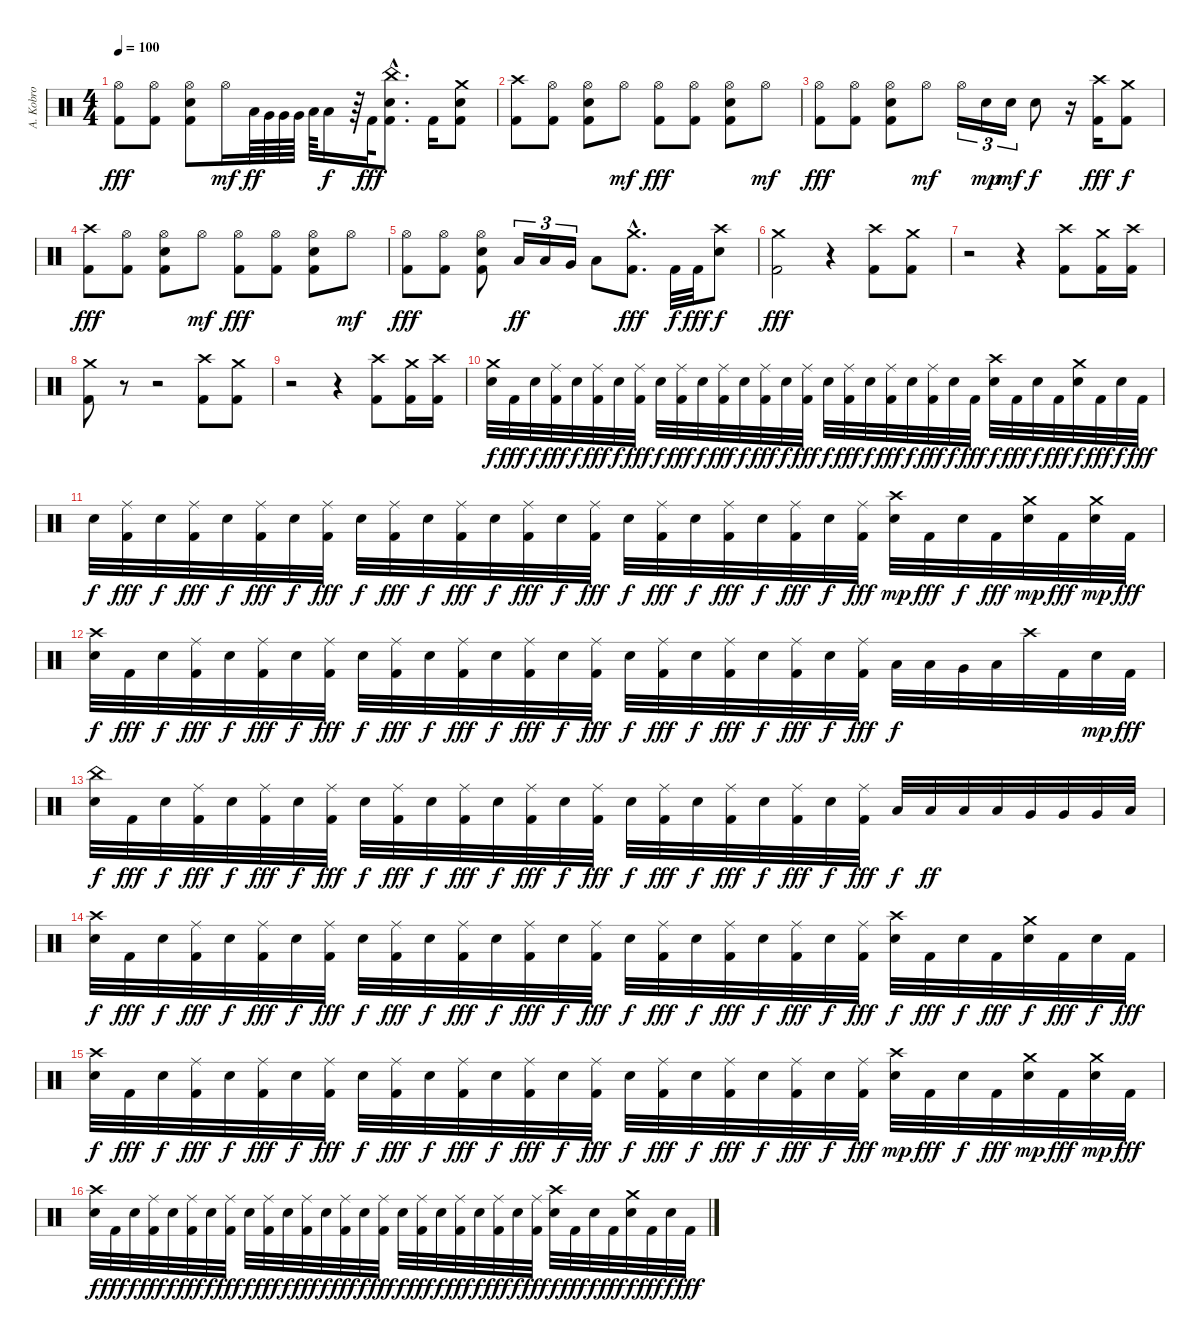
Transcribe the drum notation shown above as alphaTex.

\track ("A. Kobro" "A. Kobro") {instrument percussion}
\staff {score}
\articulation defaults
\ts (4 4)
\tempo 100
\clef neutral
\ks c
("Hi-Hat (open)" "Kick (hit) 2").8{dy fff} ("Hi-Hat (open)" "Kick (hit) 2").8 ("Hi-Hat (open)" "Electric Snare (hit)" "Kick (hit) 2").8 "Hi-Hat (open)".16{dy mf} "Low Tom (hit)".64{dy ff} "Very Low Tom (hit)".64 "Very Low Tom (hit)".64 "Very Low Tom (hit)".64 "Low Floor Tom (hit)".64 "Low Floor Tom (hit)".16{dy f} r.64 "Kick (hit) 2".32{dy fff} ("China (hit)"{hac} "Electric Snare (hit)"{hac} "Kick (hit) 2"{hac}).8{d} "Kick (hit) 2".16 ("Crash medium (hit)" "Electric Snare (hit)" "Kick (hit) 2").8 |
("Crash high (hit)" "Kick (hit) 2").8 ("Hi-Hat (open)" "Kick (hit) 2").8 ("Hi-Hat (open)" "Electric Snare (hit)" "Kick (hit) 2").8 "Hi-Hat (open)".8{dy mf} ("Hi-Hat (open)" "Kick (hit) 2").8{dy fff} ("Hi-Hat (open)" "Kick (hit) 2").8 ("Hi-Hat (open)" "Electric Snare (hit)" "Kick (hit) 2").8 "Hi-Hat (open)".8{dy mf} |
("Hi-Hat (open)" "Kick (hit) 2").8{dy fff} ("Hi-Hat (open)" "Kick (hit) 2").8 ("Hi-Hat (open)" "Electric Snare (hit)" "Kick (hit) 2").8 "Hi-Hat (open)".8{dy mf} "Hi-Hat (open)".16{tu (3 2)} "Electric Snare (hit)".16{tu (3 2) dy mp} "Electric Snare (hit)".16{tu (3 2) dy mf} "Electric Snare (hit)".8{dy f} r.16 ("Crash high (hit)" "Kick (hit) 2").16{dy fff} ("Crash medium (hit)" "Kick (hit) 2").8{dy f} |
("Crash high (hit)" "Kick (hit) 2").8{dy fff} ("Hi-Hat (open)" "Kick (hit) 2").8 ("Hi-Hat (open)" "Electric Snare (hit)" "Kick (hit) 2").8 "Hi-Hat (open)".8{dy mf} ("Hi-Hat (open)" "Kick (hit) 2").8{dy fff} ("Hi-Hat (open)" "Kick (hit) 2").8 ("Hi-Hat (open)" "Electric Snare (hit)" "Kick (hit) 2").8 "Hi-Hat (open)".8{dy mf} |
("Hi-Hat (open)" "Kick (hit) 2").8{dy fff} ("Hi-Hat (open)" "Kick (hit) 2").8 ("Hi-Hat (open)" "Electric Snare (hit)" "Kick (hit) 2").8 "Low Tom (hit)".16{tu (3 2) dy ff} "Low Tom (hit)".16{tu (3 2)} "Very Low Tom (hit)".16{tu (3 2)} "Low Floor Tom (hit)".8 ("Crash medium (hit)"{hac} "Kick (hit) 2"{hac}).8{d dy fff} "Kick (hit) 2".32{dy f} "Kick (hit) 2".32{dy fff} ("Crash high (hit)" "Electric Snare (hit)").8{dy f} |
("Crash medium (hit)" "Kick (hit) 2").2{dy fff} r.4 ("Crash high (hit)" "Kick (hit) 2").8 ("Crash medium (hit)" "Kick (hit) 2").8 |
r.2{volume 0} r.4{volume 14} ("Crash high (hit)" "Kick (hit) 2").8 ("Crash medium (hit)" "Kick (hit) 2").16 ("Crash high (hit)" "Kick (hit) 2").16 |
("Crash medium (hit)" "Kick (hit) 2").8 r.8{volume 0} r.2 ("Crash high (hit)" "Kick (hit) 2").8{volume 14} ("Crash medium (hit)" "Kick (hit) 2").8 |
r.2 r.4 ("Crash high (hit)" "Kick (hit) 2").8 ("Crash medium (hit)" "Kick (hit) 2").16 ("Crash high (hit)" "Kick (hit) 2").16 |
("Crash medium (hit)" "Electric Snare (hit)").32{dy f} "Kick (hit) 2".32{dy fff} "Electric Snare (hit)".32{dy f} ("Ride (middle)" "Kick (hit) 2").32{dy fff} "Electric Snare (hit)".32{dy f} ("Ride (middle)" "Kick (hit) 2").32{dy fff} "Electric Snare (hit)".32{dy f} ("Ride (middle)" "Kick (hit) 2").32{dy fff} "Electric Snare (hit)".32{dy f} ("Ride (middle)" "Kick (hit) 2").32{dy fff} "Electric Snare (hit)".32{dy f} ("Ride (middle)" "Kick (hit) 2").32{dy fff} "Electric Snare (hit)".32{dy f} ("Ride (middle)" "Kick (hit) 2").32{dy fff} "Electric Snare (hit)".32{dy f} ("Ride (middle)" "Kick (hit) 2").32{dy fff} "Electric Snare (hit)".32{dy f} ("Ride (middle)" "Kick (hit) 2").32{dy fff} "Electric Snare (hit)".32{dy f} ("Ride (middle)" "Kick (hit) 2").32{dy fff} "Electric Snare (hit)".32{dy f} ("Ride (middle)" "Kick (hit) 2").32{dy fff} "Electric Snare (hit)".32{dy f} "Kick (hit) 2".32{dy fff} ("Crash high (hit)" "Electric Snare (hit)").32{dy f} "Kick (hit) 2".32{dy fff} "Electric Snare (hit)".32{dy f} "Kick (hit) 2".32{dy fff} ("Crash medium (hit)" "Electric Snare (hit)").32{dy f} "Kick (hit) 2".32{dy fff} "Electric Snare (hit)".32{dy f} "Kick (hit) 2".32{dy fff} |
"Electric Snare (hit)".32{dy f} ("Ride (middle)" "Kick (hit) 2").32{dy fff} "Electric Snare (hit)".32{dy f} ("Ride (middle)" "Kick (hit) 2").32{dy fff} "Electric Snare (hit)".32{dy f} ("Ride (middle)" "Kick (hit) 2").32{dy fff} "Electric Snare (hit)".32{dy f} ("Ride (middle)" "Kick (hit) 2").32{dy fff} "Electric Snare (hit)".32{dy f} ("Ride (middle)" "Kick (hit) 2").32{dy fff} "Electric Snare (hit)".32{dy f} ("Ride (middle)" "Kick (hit) 2").32{dy fff} "Electric Snare (hit)".32{dy f} ("Ride (middle)" "Kick (hit) 2").32{dy fff} "Electric Snare (hit)".32{dy f} ("Ride (middle)" "Kick (hit) 2").32{dy fff} "Electric Snare (hit)".32{dy f} ("Ride (middle)" "Kick (hit) 2").32{dy fff} "Electric Snare (hit)".32{dy f} ("Ride (middle)" "Kick (hit) 2").32{dy fff} "Electric Snare (hit)".32{dy f} ("Ride (middle)" "Kick (hit) 2").32{dy fff} "Electric Snare (hit)".32{dy f} ("Ride (middle)" "Kick (hit) 2").32{dy fff} ("Crash high (hit)" "Electric Snare (hit)").32{dy mp} "Kick (hit) 2".32{dy fff} "Electric Snare (hit)".32{dy f} "Kick (hit) 2".32{dy fff} ("Crash medium (hit)" "Electric Snare (hit)").32{dy mp} "Kick (hit) 2".32{dy fff} ("Crash medium (hit)" "Electric Snare (hit)").32{dy mp} "Kick (hit) 2".32{dy fff} |
("Crash high (hit)" "Electric Snare (hit)").32{dy f} "Kick (hit) 2".32{dy fff} "Electric Snare (hit)".32{dy f} ("Ride (middle)" "Kick (hit) 2").32{dy fff} "Electric Snare (hit)".32{dy f} ("Ride (middle)" "Kick (hit) 2").32{dy fff} "Electric Snare (hit)".32{dy f} ("Ride (middle)" "Kick (hit) 2").32{dy fff} "Electric Snare (hit)".32{dy f} ("Ride (middle)" "Kick (hit) 2").32{dy fff} "Electric Snare (hit)".32{dy f} ("Ride (middle)" "Kick (hit) 2").32{dy fff} "Electric Snare (hit)".32{dy f} ("Ride (middle)" "Kick (hit) 2").32{dy fff} "Electric Snare (hit)".32{dy f} ("Ride (middle)" "Kick (hit) 2").32{dy fff} "Electric Snare (hit)".32{dy f} ("Ride (middle)" "Kick (hit) 2").32{dy fff} "Electric Snare (hit)".32{dy f} ("Ride (middle)" "Kick (hit) 2").32{dy fff} "Electric Snare (hit)".32{dy f} ("Ride (middle)" "Kick (hit) 2").32{dy fff} "Electric Snare (hit)".32{dy f} ("Ride (middle)" "Kick (hit) 2").32{dy fff} "Low Tom (hit)".32{dy f} "Low Tom (hit)".32 "Very Low Tom (hit)".32 "Low Floor Tom (hit)".32 "Crash high (hit)".32 "Kick (hit) 2".32 "Electric Snare (hit)".32{dy mp} "Kick (hit) 2".32{dy fff} |
("China (hit)" "Electric Snare (hit)").32{dy f} "Kick (hit) 2".32{dy fff} "Electric Snare (hit)".32{dy f} ("Ride (middle)" "Kick (hit) 2").32{dy fff} "Electric Snare (hit)".32{dy f} ("Ride (middle)" "Kick (hit) 2").32{dy fff} "Electric Snare (hit)".32{dy f} ("Ride (middle)" "Kick (hit) 2").32{dy fff} "Electric Snare (hit)".32{dy f} ("Ride (middle)" "Kick (hit) 2").32{dy fff} "Electric Snare (hit)".32{dy f} ("Ride (middle)" "Kick (hit) 2").32{dy fff} "Electric Snare (hit)".32{dy f} ("Ride (middle)" "Kick (hit) 2").32{dy fff} "Electric Snare (hit)".32{dy f} ("Ride (middle)" "Kick (hit) 2").32{dy fff} "Electric Snare (hit)".32{dy f} ("Ride (middle)" "Kick (hit) 2").32{dy fff} "Electric Snare (hit)".32{dy f} ("Ride (middle)" "Kick (hit) 2").32{dy fff} "Electric Snare (hit)".32{dy f} ("Ride (middle)" "Kick (hit) 2").32{dy fff} "Electric Snare (hit)".32{dy f} ("Ride (middle)" "Kick (hit) 2").32{dy fff} "Low Tom (hit)".32{dy f} "Low Tom (hit)".32{dy ff} "Low Tom (hit)".32 "Low Tom (hit)".32 "Very Low Tom (hit)".32 "Very Low Tom (hit)".32 "Very Low Tom (hit)".32 "Low Floor Tom (hit)".32 |
("Crash high (hit)" "Electric Snare (hit)").32{dy f} "Kick (hit) 2".32{dy fff} "Electric Snare (hit)".32{dy f} ("Ride (middle)" "Kick (hit) 2").32{dy fff} "Electric Snare (hit)".32{dy f} ("Ride (middle)" "Kick (hit) 2").32{dy fff} "Electric Snare (hit)".32{dy f} ("Ride (middle)" "Kick (hit) 2").32{dy fff} "Electric Snare (hit)".32{dy f} ("Ride (middle)" "Kick (hit) 2").32{dy fff} "Electric Snare (hit)".32{dy f} ("Ride (middle)" "Kick (hit) 2").32{dy fff} "Electric Snare (hit)".32{dy f} ("Ride (middle)" "Kick (hit) 2").32{dy fff} "Electric Snare (hit)".32{dy f} ("Ride (middle)" "Kick (hit) 2").32{dy fff} "Electric Snare (hit)".32{dy f} ("Ride (middle)" "Kick (hit) 2").32{dy fff} "Electric Snare (hit)".32{dy f} ("Ride (middle)" "Kick (hit) 2").32{dy fff} "Electric Snare (hit)".32{dy f} ("Ride (middle)" "Kick (hit) 2").32{dy fff} "Electric Snare (hit)".32{dy f} ("Ride (middle)" "Kick (hit) 2").32{dy fff} ("Crash high (hit)" "Electric Snare (hit)").32{dy f} "Kick (hit) 2".32{dy fff} "Electric Snare (hit)".32{dy f} "Kick (hit) 2".32{dy fff} ("Crash medium (hit)" "Electric Snare (hit)").32{dy f} "Kick (hit) 2".32{dy fff} "Electric Snare (hit)".32{dy f} "Kick (hit) 2".32{dy fff} |
("Crash high (hit)" "Electric Snare (hit)").32{dy f} "Kick (hit) 2".32{dy fff} "Electric Snare (hit)".32{dy f} ("Ride (middle)" "Kick (hit) 2").32{dy fff} "Electric Snare (hit)".32{dy f} ("Ride (middle)" "Kick (hit) 2").32{dy fff} "Electric Snare (hit)".32{dy f} ("Ride (middle)" "Kick (hit) 2").32{dy fff} "Electric Snare (hit)".32{dy f} ("Ride (middle)" "Kick (hit) 2").32{dy fff} "Electric Snare (hit)".32{dy f} ("Ride (middle)" "Kick (hit) 2").32{dy fff} "Electric Snare (hit)".32{dy f} ("Ride (middle)" "Kick (hit) 2").32{dy fff} "Electric Snare (hit)".32{dy f} ("Ride (middle)" "Kick (hit) 2").32{dy fff} "Electric Snare (hit)".32{dy f} ("Ride (middle)" "Kick (hit) 2").32{dy fff} "Electric Snare (hit)".32{dy f} ("Ride (middle)" "Kick (hit) 2").32{dy fff} "Electric Snare (hit)".32{dy f} ("Ride (middle)" "Kick (hit) 2").32{dy fff} "Electric Snare (hit)".32{dy f} ("Ride (middle)" "Kick (hit) 2").32{dy fff} ("Crash high (hit)" "Electric Snare (hit)").32{dy mp} "Kick (hit) 2".32{dy fff} "Electric Snare (hit)".32{dy f} "Kick (hit) 2".32{dy fff} ("Crash medium (hit)" "Electric Snare (hit)").32{dy mp} "Kick (hit) 2".32{dy fff} ("Crash medium (hit)" "Electric Snare (hit)").32{dy mp} "Kick (hit) 2".32{dy fff} |
("Crash high (hit)" "Electric Snare (hit)").32{dy f} "Kick (hit) 2".32{dy fff} "Electric Snare (hit)".32{dy f} ("Ride (middle)" "Kick (hit) 2").32{dy fff} "Electric Snare (hit)".32{dy f} ("Ride (middle)" "Kick (hit) 2").32{dy fff} "Electric Snare (hit)".32{dy f} ("Ride (middle)" "Kick (hit) 2").32{dy fff} "Electric Snare (hit)".32{dy f} ("Ride (middle)" "Kick (hit) 2").32{dy fff} "Electric Snare (hit)".32{dy f} ("Ride (middle)" "Kick (hit) 2").32{dy fff} "Electric Snare (hit)".32{dy f} ("Ride (middle)" "Kick (hit) 2").32{dy fff} "Electric Snare (hit)".32{dy f} ("Ride (middle)" "Kick (hit) 2").32{dy fff} "Electric Snare (hit)".32{dy f} ("Ride (middle)" "Kick (hit) 2").32{dy fff} "Electric Snare (hit)".32{dy f} ("Ride (middle)" "Kick (hit) 2").32{dy fff} "Electric Snare (hit)".32{dy f} ("Ride (middle)" "Kick (hit) 2").32{dy fff} "Electric Snare (hit)".32{dy f} ("Ride (middle)" "Kick (hit) 2").32{dy fff} ("Crash high (hit)" "Electric Snare (hit)").32{dy f} "Kick (hit) 2".32{dy fff} "Electric Snare (hit)".32{dy f} "Kick (hit) 2".32{dy fff} ("Crash medium (hit)" "Electric Snare (hit)").32{dy f} "Kick (hit) 2".32{dy fff} "Electric Snare (hit)".32{dy f} "Kick (hit) 2".32{dy fff}
